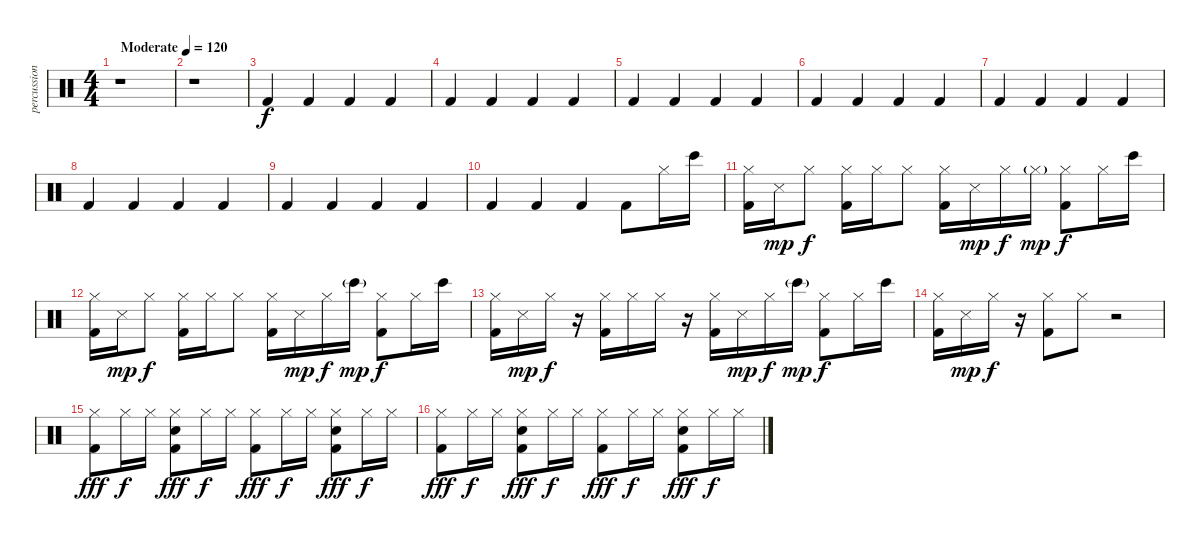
\track ("percussion" "percussion") {instrument percussion}
\staff {score}
\articulation defaults
\ts (4 4)
\tempo (120 "Moderate")
\clef neutral
\ks c
r.1{dy f} |
r.1 |
"Kick (hit) 2".4 "Kick (hit) 2".4 "Kick (hit) 2".4 "Kick (hit) 2".4 |
"Kick (hit) 2".4 "Kick (hit) 2".4 "Kick (hit) 2".4 "Kick (hit) 2".4 |
"Kick (hit) 2".4 "Kick (hit) 2".4 "Kick (hit) 2".4 "Kick (hit) 2".4 |
"Kick (hit) 2".4 "Kick (hit) 2".4 "Kick (hit) 2".4 "Kick (hit) 2".4 |
"Kick (hit) 2".4 "Kick (hit) 2".4 "Kick (hit) 2".4 "Kick (hit) 2".4 |
"Kick (hit) 2".4 "Kick (hit) 2".4 "Kick (hit) 2".4 "Kick (hit) 2".4 |
"Kick (hit) 2".4 "Kick (hit) 2".4 "Kick (hit) 2".4 "Kick (hit) 2".4 |
"Kick (hit) 2".4 "Kick (hit) 2".4 "Kick (hit) 2".4 "Kick (hit) 2".8 "Hi-Hat (closed)".16 "Bongo High (hit)".16 |
("Hi-Hat (closed)" "Kick (hit) 2").16 "Snare (side stick) 3".16{dy mp} "Hi-Hat (closed)".8{dy f} ("Hi-Hat (closed)" "Kick (hit) 2").16 "Hi-Hat (closed)".16 "Hi-Hat (closed)".8 ("Hi-Hat (closed)" "Kick (hit) 2").16 "Snare (side stick) 3".16{dy mp} "Hi-Hat (closed)".16{dy f} "Hi-Hat (closed)"{g}.16{dy mp} ("Hi-Hat (closed)" "Kick (hit) 2").8{dy f} "Hi-Hat (closed)".16 "Bongo High (hit)".16 |
("Hi-Hat (closed)" "Kick (hit) 2").16 "Snare (side stick) 3".16{dy mp} "Hi-Hat (closed)".8{dy f} ("Hi-Hat (closed)" "Kick (hit) 2").16 "Hi-Hat (closed)".16 "Hi-Hat (closed)".8 ("Hi-Hat (closed)" "Kick (hit) 2").16 "Snare (side stick) 3".16{dy mp} "Hi-Hat (closed)".16{dy f} "Bongo High (hit)"{g}.16{dy mp} ("Hi-Hat (closed)" "Kick (hit) 2").8{dy f} "Hi-Hat (closed)".16 "Bongo High (hit)".16 |
("Hi-Hat (closed)" "Kick (hit) 2").16 "Snare (side stick) 3".16{dy mp} "Hi-Hat (closed)".16{dy f} r.16 ("Hi-Hat (closed)" "Kick (hit) 2").16 "Hi-Hat (closed)".16 "Hi-Hat (closed)".16 r.16 ("Hi-Hat (closed)" "Kick (hit) 2").16 "Snare (side stick) 3".16{dy mp} "Hi-Hat (closed)".16{dy f} "Bongo High (hit)"{g}.16{dy mp} ("Hi-Hat (closed)" "Kick (hit) 2").8{dy f} "Hi-Hat (closed)".16 "Bongo High (hit)".16 |
("Hi-Hat (closed)" "Kick (hit) 2").16 "Snare (side stick) 3".16{dy mp} "Hi-Hat (closed)".16{dy f} r.16 ("Hi-Hat (closed)" "Kick (hit) 2").8 "Hi-Hat (closed)".8 r.2 |
("Hi-Hat (closed)" "Kick (hit) 2").8{dy fff} "Hi-Hat (closed)".16{dy f} "Hi-Hat (closed)".16 ("Snare (hit) 2" "Hi-Hat (closed)" "Kick (hit) 2").8{dy fff} "Hi-Hat (closed)".16{dy f} "Hi-Hat (closed)".16 ("Hi-Hat (closed)" "Kick (hit) 2").8{dy fff} "Hi-Hat (closed)".16{dy f} "Hi-Hat (closed)".16 ("Snare (hit) 2" "Hi-Hat (closed)" "Kick (hit) 2").8{dy fff} "Hi-Hat (closed)".16{dy f} "Hi-Hat (closed)".16 |
("Hi-Hat (closed)" "Kick (hit) 2").8{dy fff} "Hi-Hat (closed)".16{dy f} "Hi-Hat (closed)".16 ("Snare (hit) 2" "Hi-Hat (closed)" "Kick (hit) 2").8{dy fff} "Hi-Hat (closed)".16{dy f} "Hi-Hat (closed)".16 ("Hi-Hat (closed)" "Kick (hit) 2").8{dy fff} "Hi-Hat (closed)".16{dy f} "Hi-Hat (closed)".16 ("Snare (hit) 2" "Hi-Hat (closed)" "Kick (hit) 2").8{dy fff} "Hi-Hat (closed)".16{dy f} "Hi-Hat (closed)".16
